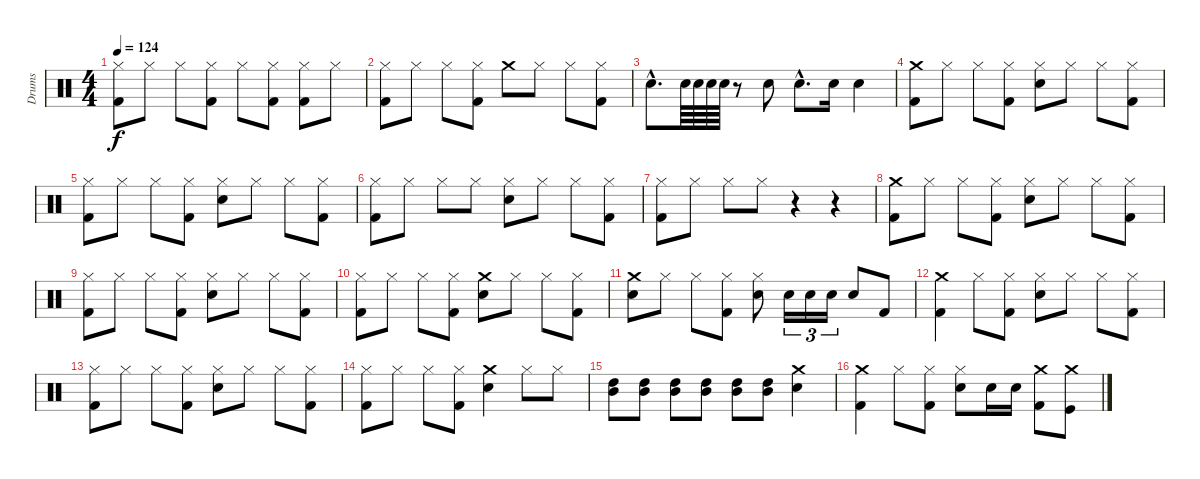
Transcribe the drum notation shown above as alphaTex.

\track ("Drums" "Drums") {instrument percussion}
\staff {score}
\articulation defaults
\ts (4 4)
\tempo 124
\clef neutral
\ks c
("Kick (hit) 2" "Hi-Hat (closed)").8{dy f} "Hi-Hat (closed)".8 "Hi-Hat (closed)".8 ("Kick (hit) 2" "Hi-Hat (closed)").8 "Hi-Hat (closed)".8 ("Kick (hit) 2" "Hi-Hat (closed)").8 ("Kick (hit) 2" "Hi-Hat (closed)").8 "Hi-Hat (closed)".8 |
("Kick (hit) 2" "Hi-Hat (closed)").8 "Hi-Hat (closed)".8 "Hi-Hat (closed)".8 ("Kick (hit) 2" "Hi-Hat (closed)").8 "Crash medium (hit)".8 "Hi-Hat (closed)".8 "Hi-Hat (closed)".8 ("Kick (hit) 2" "Hi-Hat (closed)").8 |
"Snare (hit) 2"{hac}.8{d} "Snare (hit) 2".64 "Snare (hit) 2".64 "Snare (hit) 2".64 "Snare (hit) 2".64 r.8 "Snare (hit) 2".8 "Snare (hit) 2"{hac}.8{d} "Snare (hit) 2".16 "Snare (hit) 2".4 |
("Crash medium (hit)" "Kick (hit) 2").8 "Hi-Hat (closed)".8 "Hi-Hat (closed)".8 ("Kick (hit) 2" "Hi-Hat (closed)").8 ("Snare (hit) 2" "Hi-Hat (closed)").8 "Hi-Hat (closed)".8 "Hi-Hat (closed)".8 ("Kick (hit) 2" "Hi-Hat (closed)").8 |
("Hi-Hat (closed)" "Kick (hit) 2").8 "Hi-Hat (closed)".8 "Hi-Hat (closed)".8 ("Kick (hit) 2" "Hi-Hat (closed)").8 ("Snare (hit) 2" "Hi-Hat (closed)").8 "Hi-Hat (closed)".8 "Hi-Hat (closed)".8 ("Kick (hit) 2" "Hi-Hat (closed)").8 |
("Hi-Hat (closed)" "Kick (hit) 2").8 "Hi-Hat (closed)".8 "Hi-Hat (closed)".8 "Hi-Hat (closed)".8 ("Snare (hit) 2" "Hi-Hat (closed)").8 "Hi-Hat (closed)".8 "Hi-Hat (closed)".8 ("Kick (hit) 2" "Hi-Hat (closed)").8 |
("Hi-Hat (closed)" "Kick (hit) 2").8 "Hi-Hat (closed)".8 "Hi-Hat (closed)".8 "Hi-Hat (closed)".8 r.4 r.4 |
("Kick (hit) 2" "Crash medium (hit)").8 "Hi-Hat (closed)".8 "Hi-Hat (closed)".8 ("Kick (hit) 2" "Hi-Hat (closed)").8 ("Snare (hit) 2" "Hi-Hat (closed)").8 "Hi-Hat (closed)".8 "Hi-Hat (closed)".8 ("Kick (hit) 2" "Hi-Hat (closed)").8 |
("Hi-Hat (closed)" "Kick (hit) 2").8 "Hi-Hat (closed)".8 "Hi-Hat (closed)".8 ("Kick (hit) 2" "Hi-Hat (closed)").8 ("Snare (hit) 2" "Hi-Hat (closed)").8 "Hi-Hat (closed)".8 "Hi-Hat (closed)".8 ("Kick (hit) 2" "Hi-Hat (closed)").8 |
("Hi-Hat (closed)" "Kick (hit) 2").8 "Hi-Hat (closed)".8 "Hi-Hat (closed)".8 ("Kick (hit) 2" "Hi-Hat (closed)").8 ("Crash medium (hit)" "Snare (hit) 2").8 "Hi-Hat (closed)".8 "Hi-Hat (closed)".8 ("Kick (hit) 2" "Hi-Hat (closed)").8 |
("Snare (hit) 2" "Crash medium (hit)").8 "Hi-Hat (closed)".8 "Hi-Hat (closed)".8 ("Kick (hit) 2" "Hi-Hat (closed)").8 ("Snare (hit) 2" "Hi-Hat (closed)").8 "Snare (hit) 2".16{tu (3 2)} "Snare (hit) 2".16{tu (3 2)} "Snare (hit) 2".16{tu (3 2)} "Snare (hit) 2".8 "Kick (hit) 2".8 |
("Kick (hit) 2" "Crash medium (hit)").4 "Hi-Hat (closed)".8 ("Kick (hit) 2" "Hi-Hat (closed)").8 ("Snare (hit) 2" "Hi-Hat (closed)").8 "Hi-Hat (closed)".8 "Hi-Hat (closed)".8 ("Kick (hit) 2" "Hi-Hat (closed)").8 |
("Kick (hit) 2" "Hi-Hat (closed)").8 "Hi-Hat (closed)".8 "Hi-Hat (closed)".8 ("Kick (hit) 2" "Hi-Hat (closed)").8 ("Snare (hit) 2" "Hi-Hat (closed)").8 "Hi-Hat (closed)".8 "Hi-Hat (closed)".8 ("Kick (hit) 2" "Hi-Hat (closed)").8 |
("Hi-Hat (closed)" "Kick (hit) 2").8 "Hi-Hat (closed)".8 "Hi-Hat (closed)".8 ("Kick (hit) 2" "Hi-Hat (closed)").8 ("Crash medium (hit)" "Snare (hit) 2").4 "Hi-Hat (closed)".8 "Hi-Hat (closed)".8 |
("High Tom (hit)" "Mid Tom (hit)").8 ("Mid Tom (hit)" "High Tom (hit)").8 ("Mid Tom (hit)" "High Tom (hit)").8 ("Mid Tom (hit)" "High Tom (hit)").8 ("Mid Tom (hit)" "High Tom (hit)").8 ("Mid Tom (hit)" "High Tom (hit)").8 ("Snare (hit) 2" "Crash medium (hit)").4 |
("Crash medium (hit)" "Kick (hit) 2").4 "Hi-Hat (closed)".8 ("Kick (hit) 2" "Hi-Hat (closed)").8 ("Snare (hit) 2" "Hi-Hat (closed)").8 "Snare (hit) 2".16 "Snare (hit) 2".16 ("Crash medium (hit)" "Kick (hit) 2").8 ("Crash medium (hit)" "Kick (hit)").8
